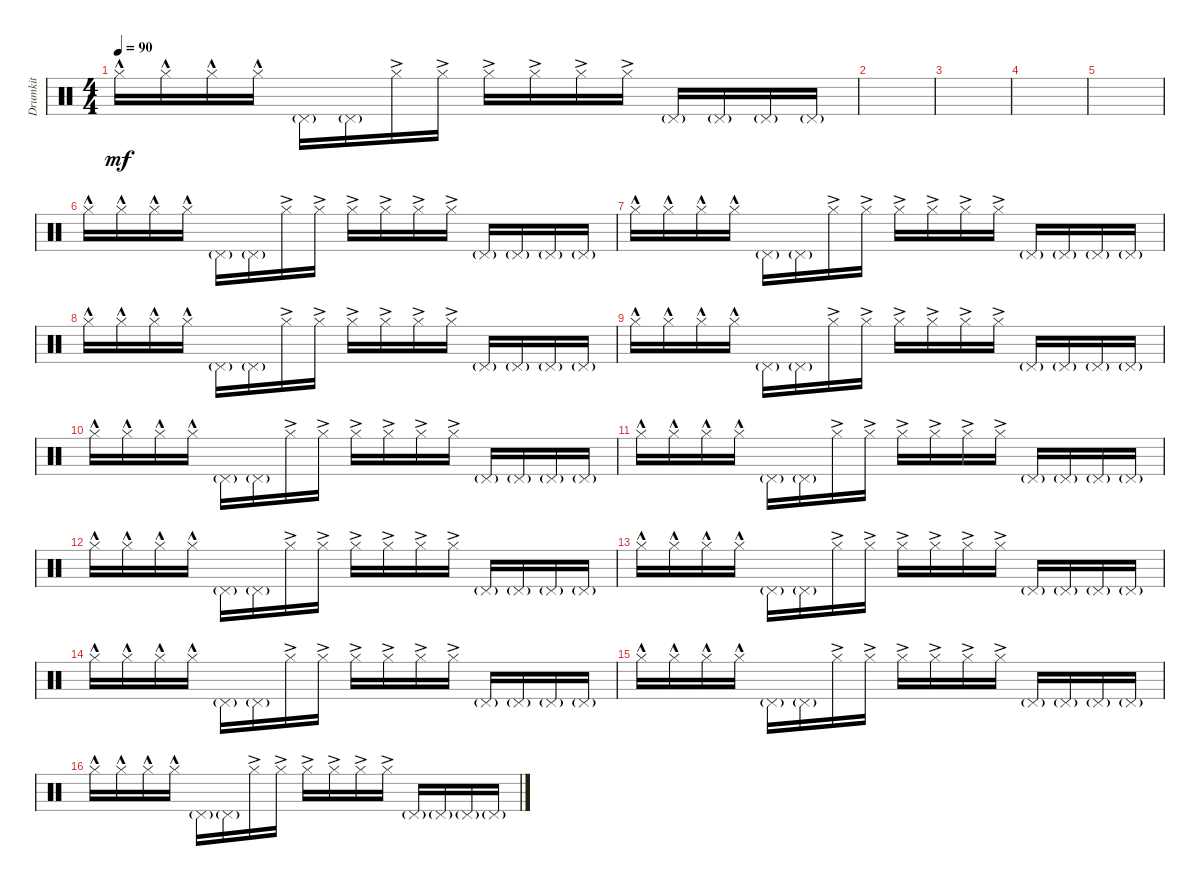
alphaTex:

\track ("Drumkit" "Drumkit") {instrument percussion}
\staff {score}
\articulation defaults
\ts (4 4)
\tempo 90
\clef neutral
\ks c "Hi-Hat (closed)"{hac}.16{dy mf} "Hi-Hat (closed)"{hac}.16 "Hi-Hat (closed)"{hac}.16 "Hi-Hat (closed)"{hac}.16 "Pedal Hi-Hat (hit)"{g}.16 "Pedal Hi-Hat (hit)"{g}.16 "Hi-Hat (closed)"{ac}.16 "Hi-Hat (closed)"{ac}.16 "Hi-Hat (closed)"{ac}.16 "Hi-Hat (closed)"{ac}.16 "Hi-Hat (closed)"{ac}.16 "Hi-Hat (closed)"{ac}.16 "Pedal Hi-Hat (hit)"{g}.16 "Pedal Hi-Hat (hit)"{g}.16 "Pedal Hi-Hat (hit)"{g}.16 "Pedal Hi-Hat (hit)"{g}.16
|
|
|
|
|
"Hi-Hat (closed)"{hac}.16 "Hi-Hat (closed)"{hac}.16 "Hi-Hat (closed)"{hac}.16 "Hi-Hat (closed)"{hac}.16 "Pedal Hi-Hat (hit)"{g}.16 "Pedal Hi-Hat (hit)"{g}.16 "Hi-Hat (closed)"{ac}.16 "Hi-Hat (closed)"{ac}.16 "Hi-Hat (closed)"{ac}.16 "Hi-Hat (closed)"{ac}.16 "Hi-Hat (closed)"{ac}.16 "Hi-Hat (closed)"{ac}.16 "Pedal Hi-Hat (hit)"{g}.16 "Pedal Hi-Hat (hit)"{g}.16 "Pedal Hi-Hat (hit)"{g}.16 "Pedal Hi-Hat (hit)"{g}.16 |
"Hi-Hat (closed)"{hac}.16 "Hi-Hat (closed)"{hac}.16 "Hi-Hat (closed)"{hac}.16 "Hi-Hat (closed)"{hac}.16 "Pedal Hi-Hat (hit)"{g}.16 "Pedal Hi-Hat (hit)"{g}.16 "Hi-Hat (closed)"{ac}.16 "Hi-Hat (closed)"{ac}.16 "Hi-Hat (closed)"{ac}.16 "Hi-Hat (closed)"{ac}.16 "Hi-Hat (closed)"{ac}.16 "Hi-Hat (closed)"{ac}.16 "Pedal Hi-Hat (hit)"{g}.16 "Pedal Hi-Hat (hit)"{g}.16 "Pedal Hi-Hat (hit)"{g}.16 "Pedal Hi-Hat (hit)"{g}.16 |
"Hi-Hat (closed)"{hac}.16 "Hi-Hat (closed)"{hac}.16 "Hi-Hat (closed)"{hac}.16 "Hi-Hat (closed)"{hac}.16 "Pedal Hi-Hat (hit)"{g}.16 "Pedal Hi-Hat (hit)"{g}.16 "Hi-Hat (closed)"{ac}.16 "Hi-Hat (closed)"{ac}.16 "Hi-Hat (closed)"{ac}.16 "Hi-Hat (closed)"{ac}.16 "Hi-Hat (closed)"{ac}.16 "Hi-Hat (closed)"{ac}.16 "Pedal Hi-Hat (hit)"{g}.16 "Pedal Hi-Hat (hit)"{g}.16 "Pedal Hi-Hat (hit)"{g}.16 "Pedal Hi-Hat (hit)"{g}.16 |
"Hi-Hat (closed)"{hac}.16 "Hi-Hat (closed)"{hac}.16 "Hi-Hat (closed)"{hac}.16 "Hi-Hat (closed)"{hac}.16 "Pedal Hi-Hat (hit)"{g}.16 "Pedal Hi-Hat (hit)"{g}.16 "Hi-Hat (closed)"{ac}.16 "Hi-Hat (closed)"{ac}.16 "Hi-Hat (closed)"{ac}.16 "Hi-Hat (closed)"{ac}.16 "Hi-Hat (closed)"{ac}.16 "Hi-Hat (closed)"{ac}.16 "Pedal Hi-Hat (hit)"{g}.16 "Pedal Hi-Hat (hit)"{g}.16 "Pedal Hi-Hat (hit)"{g}.16 "Pedal Hi-Hat (hit)"{g}.16 |
"Hi-Hat (closed)"{hac}.16 "Hi-Hat (closed)"{hac}.16 "Hi-Hat (closed)"{hac}.16 "Hi-Hat (closed)"{hac}.16 "Pedal Hi-Hat (hit)"{g}.16 "Pedal Hi-Hat (hit)"{g}.16 "Hi-Hat (closed)"{ac}.16 "Hi-Hat (closed)"{ac}.16 "Hi-Hat (closed)"{ac}.16 "Hi-Hat (closed)"{ac}.16 "Hi-Hat (closed)"{ac}.16 "Hi-Hat (closed)"{ac}.16 "Pedal Hi-Hat (hit)"{g}.16 "Pedal Hi-Hat (hit)"{g}.16 "Pedal Hi-Hat (hit)"{g}.16 "Pedal Hi-Hat (hit)"{g}.16 |
"Hi-Hat (closed)"{hac}.16 "Hi-Hat (closed)"{hac}.16 "Hi-Hat (closed)"{hac}.16 "Hi-Hat (closed)"{hac}.16 "Pedal Hi-Hat (hit)"{g}.16 "Pedal Hi-Hat (hit)"{g}.16 "Hi-Hat (closed)"{ac}.16 "Hi-Hat (closed)"{ac}.16 "Hi-Hat (closed)"{ac}.16 "Hi-Hat (closed)"{ac}.16 "Hi-Hat (closed)"{ac}.16 "Hi-Hat (closed)"{ac}.16 "Pedal Hi-Hat (hit)"{g}.16 "Pedal Hi-Hat (hit)"{g}.16 "Pedal Hi-Hat (hit)"{g}.16 "Pedal Hi-Hat (hit)"{g}.16 |
"Hi-Hat (closed)"{hac}.16 "Hi-Hat (closed)"{hac}.16 "Hi-Hat (closed)"{hac}.16 "Hi-Hat (closed)"{hac}.16 "Pedal Hi-Hat (hit)"{g}.16 "Pedal Hi-Hat (hit)"{g}.16 "Hi-Hat (closed)"{ac}.16 "Hi-Hat (closed)"{ac}.16 "Hi-Hat (closed)"{ac}.16 "Hi-Hat (closed)"{ac}.16 "Hi-Hat (closed)"{ac}.16 "Hi-Hat (closed)"{ac}.16 "Pedal Hi-Hat (hit)"{g}.16 "Pedal Hi-Hat (hit)"{g}.16 "Pedal Hi-Hat (hit)"{g}.16 "Pedal Hi-Hat (hit)"{g}.16 |
"Hi-Hat (closed)"{hac}.16 "Hi-Hat (closed)"{hac}.16 "Hi-Hat (closed)"{hac}.16 "Hi-Hat (closed)"{hac}.16 "Pedal Hi-Hat (hit)"{g}.16 "Pedal Hi-Hat (hit)"{g}.16 "Hi-Hat (closed)"{ac}.16 "Hi-Hat (closed)"{ac}.16 "Hi-Hat (closed)"{ac}.16 "Hi-Hat (closed)"{ac}.16 "Hi-Hat (closed)"{ac}.16 "Hi-Hat (closed)"{ac}.16 "Pedal Hi-Hat (hit)"{g}.16 "Pedal Hi-Hat (hit)"{g}.16 "Pedal Hi-Hat (hit)"{g}.16 "Pedal Hi-Hat (hit)"{g}.16 |
"Hi-Hat (closed)"{hac}.16 "Hi-Hat (closed)"{hac}.16 "Hi-Hat (closed)"{hac}.16 "Hi-Hat (closed)"{hac}.16 "Pedal Hi-Hat (hit)"{g}.16 "Pedal Hi-Hat (hit)"{g}.16 "Hi-Hat (closed)"{ac}.16 "Hi-Hat (closed)"{ac}.16 "Hi-Hat (closed)"{ac}.16 "Hi-Hat (closed)"{ac}.16 "Hi-Hat (closed)"{ac}.16 "Hi-Hat (closed)"{ac}.16 "Pedal Hi-Hat (hit)"{g}.16 "Pedal Hi-Hat (hit)"{g}.16 "Pedal Hi-Hat (hit)"{g}.16 "Pedal Hi-Hat (hit)"{g}.16 |
"Hi-Hat (closed)"{hac}.16 "Hi-Hat (closed)"{hac}.16 "Hi-Hat (closed)"{hac}.16 "Hi-Hat (closed)"{hac}.16 "Pedal Hi-Hat (hit)"{g}.16 "Pedal Hi-Hat (hit)"{g}.16 "Hi-Hat (closed)"{ac}.16 "Hi-Hat (closed)"{ac}.16 "Hi-Hat (closed)"{ac}.16 "Hi-Hat (closed)"{ac}.16 "Hi-Hat (closed)"{ac}.16 "Hi-Hat (closed)"{ac}.16 "Pedal Hi-Hat (hit)"{g}.16 "Pedal Hi-Hat (hit)"{g}.16 "Pedal Hi-Hat (hit)"{g}.16 "Pedal Hi-Hat (hit)"{g}.16 |
"Hi-Hat (closed)"{hac}.16 "Hi-Hat (closed)"{hac}.16 "Hi-Hat (closed)"{hac}.16 "Hi-Hat (closed)"{hac}.16 "Pedal Hi-Hat (hit)"{g}.16 "Pedal Hi-Hat (hit)"{g}.16 "Hi-Hat (closed)"{ac}.16 "Hi-Hat (closed)"{ac}.16 "Hi-Hat (closed)"{ac}.16 "Hi-Hat (closed)"{ac}.16 "Hi-Hat (closed)"{ac}.16 "Hi-Hat (closed)"{ac}.16 "Pedal Hi-Hat (hit)"{g}.16 "Pedal Hi-Hat (hit)"{g}.16 "Pedal Hi-Hat (hit)"{g}.16 "Pedal Hi-Hat (hit)"{g}.16
